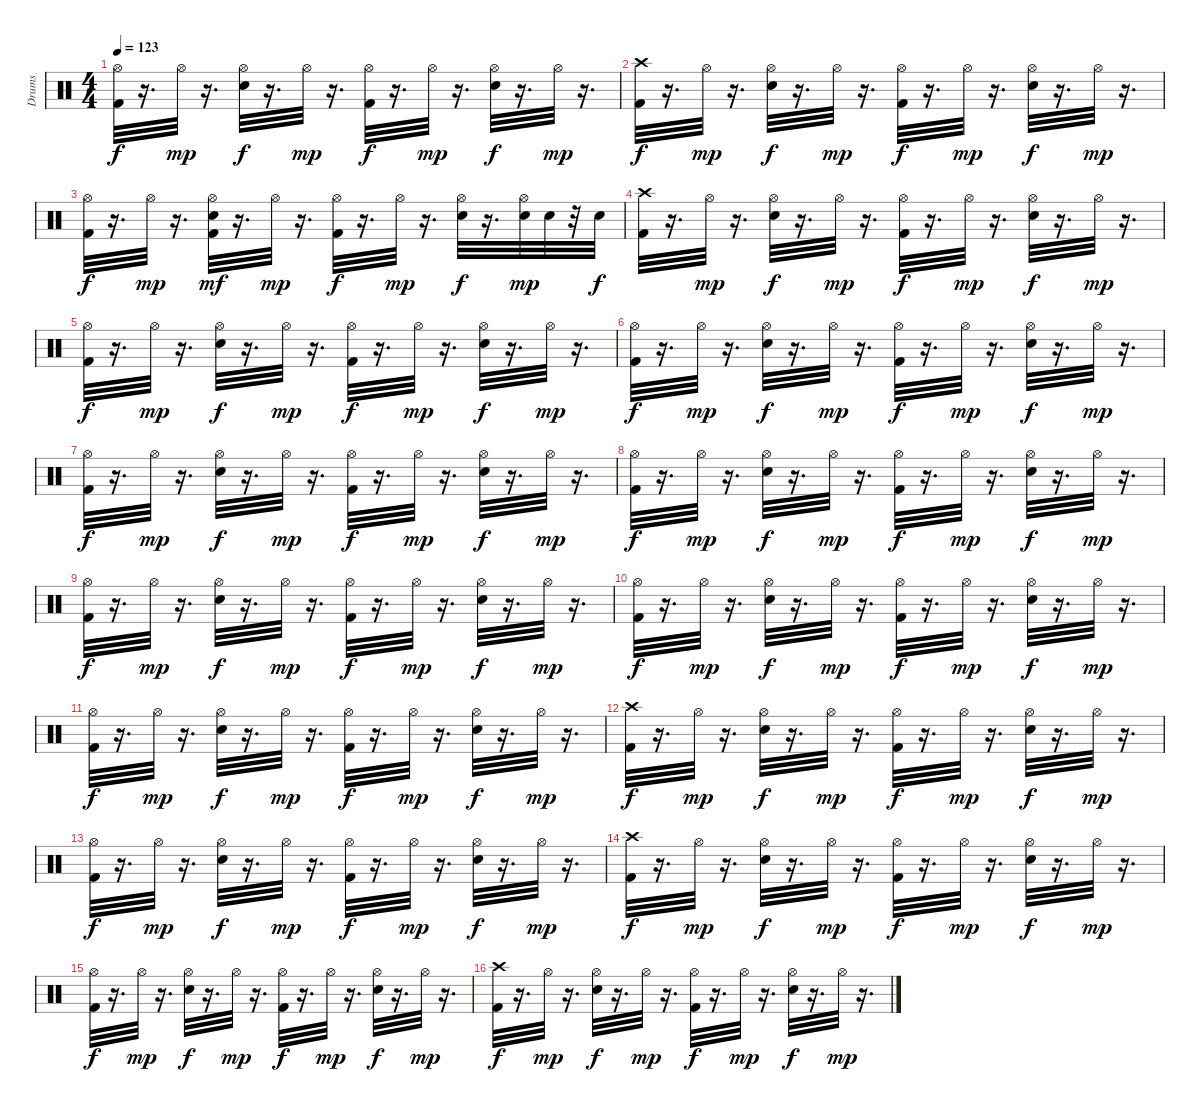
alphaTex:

\track ("Drums" "Drums") {instrument percussion}
\staff {score}
\articulation defaults
\ts (4 4)
\tempo 123
\clef neutral
\ks c
("Kick (hit) 2" "Hi-Hat (open)").32{dy f} r.16{d} "Hi-Hat (open)".32{dy mp} r.16{d} ("Electric Snare (hit)" "Hi-Hat (open)").32{dy f} r.16{d} "Hi-Hat (open)".32{dy mp} r.16{d} ("Kick (hit) 2" "Hi-Hat (open)").32{dy f} r.16{d} "Hi-Hat (open)".32{dy mp} r.16{d} ("Electric Snare (hit)" "Hi-Hat (open)").32{dy f} r.16{d} "Hi-Hat (open)".32{dy mp} r.16{d} |
("Crash high (hit)" "Kick (hit) 2").32{dy f} r.16{d} "Hi-Hat (open)".32{dy mp} r.16{d} ("Hi-Hat (open)" "Electric Snare (hit)").32{dy f} r.16{d} "Hi-Hat (open)".32{dy mp} r.16{d} ("Hi-Hat (open)" "Kick (hit) 2").32{dy f} r.16{d} "Hi-Hat (open)".32{dy mp} r.16{d} ("Electric Snare (hit)" "Hi-Hat (open)").32{dy f} r.16{d} "Hi-Hat (open)".32{dy mp} r.16{d} |
("Kick (hit) 2" "Hi-Hat (open)").32{dy f} r.16{d} "Hi-Hat (open)".32{dy mp} r.16{d} ("Kick (hit) 2" "Electric Snare (hit)" "Hi-Hat (open)").32{dy mf} r.16{d} "Hi-Hat (open)".32{dy mp} r.16{d} ("Kick (hit) 2" "Hi-Hat (open)").32{dy f} r.16{d} "Hi-Hat (open)".32{dy mp} r.16{d} ("Electric Snare (hit)" "Hi-Hat (open)").32{dy f} r.16{d} ("Electric Snare (hit)" "Hi-Hat (open)").32{dy mp} "Electric Snare (hit)".32 r.32 "Electric Snare (hit)".32{dy f} |
("Crash high (hit)" "Kick (hit) 2").32 r.16{d} "Hi-Hat (open)".32{dy mp} r.16{d} ("Hi-Hat (open)" "Electric Snare (hit)").32{dy f} r.16{d} "Hi-Hat (open)".32{dy mp} r.16{d} ("Kick (hit) 2" "Hi-Hat (open)").32{dy f} r.16{d} "Hi-Hat (open)".32{dy mp} r.16{d} ("Hi-Hat (open)" "Electric Snare (hit)").32{dy f} r.16{d} "Hi-Hat (open)".32{dy mp} r.16{d} |
("Hi-Hat (open)" "Kick (hit) 2").32{dy f} r.16{d} "Hi-Hat (open)".32{dy mp} r.16{d} ("Hi-Hat (open)" "Electric Snare (hit)").32{dy f} r.16{d} "Hi-Hat (open)".32{dy mp} r.16{d} ("Hi-Hat (open)" "Kick (hit) 2").32{dy f} r.16{d} "Hi-Hat (open)".32{dy mp} r.16{d} ("Hi-Hat (open)" "Electric Snare (hit)").32{dy f} r.16{d} "Hi-Hat (open)".32{dy mp} r.16{d} |
("Hi-Hat (open)" "Kick (hit) 2").32{dy f} r.16{d} "Hi-Hat (open)".32{dy mp} r.16{d} ("Hi-Hat (open)" "Electric Snare (hit)").32{dy f} r.16{d} "Hi-Hat (open)".32{dy mp} r.16{d} ("Hi-Hat (open)" "Kick (hit) 2").32{dy f} r.16{d} "Hi-Hat (open)".32{dy mp} r.16{d} ("Hi-Hat (open)" "Electric Snare (hit)").32{dy f} r.16{d} "Hi-Hat (open)".32{dy mp} r.16{d} |
("Hi-Hat (open)" "Kick (hit) 2").32{dy f} r.16{d} "Hi-Hat (open)".32{dy mp} r.16{d} ("Hi-Hat (open)" "Electric Snare (hit)").32{dy f} r.16{d} "Hi-Hat (open)".32{dy mp} r.16{d} ("Hi-Hat (open)" "Kick (hit) 2").32{dy f} r.16{d} "Hi-Hat (open)".32{dy mp} r.16{d} ("Hi-Hat (open)" "Electric Snare (hit)").32{dy f} r.16{d} "Hi-Hat (open)".32{dy mp} r.16{d} |
("Hi-Hat (open)" "Kick (hit) 2").32{dy f} r.16{d} "Hi-Hat (open)".32{dy mp} r.16{d} ("Hi-Hat (open)" "Electric Snare (hit)").32{dy f} r.16{d} "Hi-Hat (open)".32{dy mp} r.16{d} ("Hi-Hat (open)" "Kick (hit) 2").32{dy f} r.16{d} "Hi-Hat (open)".32{dy mp} r.16{d} ("Hi-Hat (open)" "Electric Snare (hit)").32{dy f} r.16{d} "Hi-Hat (open)".32{dy mp} r.16{d} |
("Hi-Hat (open)" "Kick (hit) 2").32{dy f} r.16{d} "Hi-Hat (open)".32{dy mp} r.16{d} ("Hi-Hat (open)" "Electric Snare (hit)").32{dy f} r.16{d} "Hi-Hat (open)".32{dy mp} r.16{d} ("Hi-Hat (open)" "Kick (hit) 2").32{dy f} r.16{d} "Hi-Hat (open)".32{dy mp} r.16{d} ("Hi-Hat (open)" "Electric Snare (hit)").32{dy f} r.16{d} "Hi-Hat (open)".32{dy mp} r.16{d} |
("Hi-Hat (open)" "Kick (hit) 2").32{dy f} r.16{d} "Hi-Hat (open)".32{dy mp} r.16{d} ("Hi-Hat (open)" "Electric Snare (hit)").32{dy f} r.16{d} "Hi-Hat (open)".32{dy mp} r.16{d} ("Hi-Hat (open)" "Kick (hit) 2").32{dy f} r.16{d} "Hi-Hat (open)".32{dy mp} r.16{d} ("Hi-Hat (open)" "Electric Snare (hit)").32{dy f} r.16{d} "Hi-Hat (open)".32{dy mp} r.16{d} |
("Hi-Hat (open)" "Kick (hit) 2").32{dy f} r.16{d} "Hi-Hat (open)".32{dy mp} r.16{d} ("Hi-Hat (open)" "Electric Snare (hit)").32{dy f} r.16{d} "Hi-Hat (open)".32{dy mp} r.16{d} ("Hi-Hat (open)" "Kick (hit) 2").32{dy f} r.16{d} "Hi-Hat (open)".32{dy mp} r.16{d} ("Hi-Hat (open)" "Electric Snare (hit)").32{dy f} r.16{d} "Hi-Hat (open)".32{dy mp} r.16{d} |
("Crash high (hit)" "Kick (hit) 2").32{dy f} r.16{d} "Hi-Hat (open)".32{dy mp} r.16{d} ("Hi-Hat (open)" "Electric Snare (hit)").32{dy f} r.16{d} "Hi-Hat (open)".32{dy mp} r.16{d} ("Kick (hit) 2" "Hi-Hat (open)").32{dy f} r.16{d} "Hi-Hat (open)".32{dy mp} r.16{d} ("Hi-Hat (open)" "Electric Snare (hit)").32{dy f} r.16{d} "Hi-Hat (open)".32{dy mp} r.16{d} |
("Hi-Hat (open)" "Kick (hit) 2").32{dy f} r.16{d} "Hi-Hat (open)".32{dy mp} r.16{d} ("Hi-Hat (open)" "Electric Snare (hit)").32{dy f} r.16{d} "Hi-Hat (open)".32{dy mp} r.16{d} ("Hi-Hat (open)" "Kick (hit) 2").32{dy f} r.16{d} "Hi-Hat (open)".32{dy mp} r.16{d} ("Hi-Hat (open)" "Electric Snare (hit)").32{dy f} r.16{d} "Hi-Hat (open)".32{dy mp} r.16{d} |
("Crash high (hit)" "Kick (hit) 2").32{dy f} r.16{d} "Hi-Hat (open)".32{dy mp} r.16{d} ("Hi-Hat (open)" "Electric Snare (hit)").32{dy f} r.16{d} "Hi-Hat (open)".32{dy mp} r.16{d} ("Hi-Hat (open)" "Kick (hit) 2").32{dy f} r.16{d} "Hi-Hat (open)".32{dy mp} r.16{d} ("Hi-Hat (open)" "Electric Snare (hit)").32{dy f} r.16{d} "Hi-Hat (open)".32{dy mp} r.16{d} |
("Hi-Hat (open)" "Kick (hit) 2").32{dy f} r.16{d} "Hi-Hat (open)".32{dy mp} r.16{d} ("Hi-Hat (open)" "Electric Snare (hit)").32{dy f} r.16{d} "Hi-Hat (open)".32{dy mp} r.16{d} ("Hi-Hat (open)" "Kick (hit) 2").32{dy f} r.16{d} "Hi-Hat (open)".32{dy mp} r.16{d} ("Hi-Hat (open)" "Electric Snare (hit)").32{dy f} r.16{d} "Hi-Hat (open)".32{dy mp} r.16{d} |
("Crash high (hit)" "Kick (hit) 2").32{dy f} r.16{d} "Hi-Hat (open)".32{dy mp} r.16{d} ("Hi-Hat (open)" "Electric Snare (hit)").32{dy f} r.16{d} "Hi-Hat (open)".32{dy mp} r.16{d} ("Kick (hit) 2" "Hi-Hat (open)").32{dy f} r.16{d} "Hi-Hat (open)".32{dy mp} r.16{d} ("Hi-Hat (open)" "Electric Snare (hit)").32{dy f} r.16{d} "Hi-Hat (open)".32{dy mp} r.16{d}
